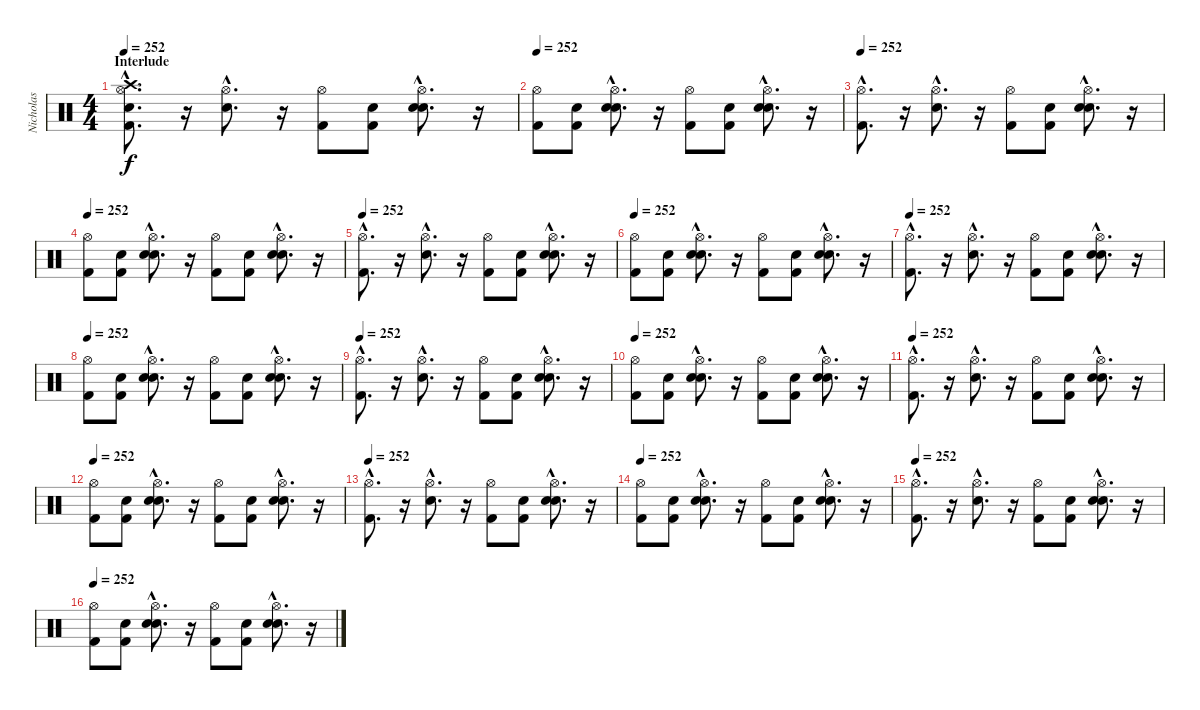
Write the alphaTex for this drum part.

\track ("Nicholas" "Nicholas") {instrument percussion}
\staff {score}
\articulation defaults
\ts (4 4)
\section ("" "Interlude")
\tempo 252
\clef neutral
\ks c
("Snare (hit)"{hac} "Kick (hit) 2"{hac} "Hi-Hat (open)"{hac} "Crash high (hit)"{hac}).8{d dy f} r.16 ("Snare (hit) 2"{hac} "Hi-Hat (open)"{hac}).8{d} r.16 ("Kick (hit) 2" "Hi-Hat (open)").8 ("Snare (hit)" "Kick (hit) 2").8 ("Snare (hit)"{hac} "Snare (hit) 2"{hac} "Hi-Hat (open)"{hac}).8{d} r.16 |
\tempo 252
("Kick (hit) 2" "Hi-Hat (open)").8 ("Snare (hit)" "Kick (hit) 2").8 ("Snare (hit)"{hac} "Snare (hit) 2"{hac} "Hi-Hat (open)"{hac}).8{d} r.16 ("Kick (hit) 2" "Hi-Hat (open)").8 ("Snare (hit)" "Kick (hit) 2").8 ("Snare (hit)"{hac} "Snare (hit) 2"{hac} "Hi-Hat (open)"{hac}).8{d} r.16 |
\tempo 252
("Kick (hit) 2"{hac} "Hi-Hat (open)"{hac}).8{d} r.16 ("Snare (hit) 2"{hac} "Hi-Hat (open)"{hac}).8{d} r.16 ("Kick (hit) 2" "Hi-Hat (open)").8 ("Snare (hit)" "Kick (hit) 2").8 ("Snare (hit)"{hac} "Snare (hit) 2"{hac} "Hi-Hat (open)"{hac}).8{d} r.16 |
\tempo 252
("Kick (hit) 2" "Hi-Hat (open)").8 ("Snare (hit)" "Kick (hit) 2").8 ("Snare (hit)"{hac} "Snare (hit) 2"{hac} "Hi-Hat (open)"{hac}).8{d} r.16 ("Kick (hit) 2" "Hi-Hat (open)").8 ("Snare (hit)" "Kick (hit) 2").8 ("Snare (hit)"{hac} "Snare (hit) 2"{hac} "Hi-Hat (open)"{hac}).8{d} r.16 |
\tempo 252
("Kick (hit) 2"{hac} "Hi-Hat (open)"{hac}).8{d} r.16 ("Snare (hit) 2"{hac} "Hi-Hat (open)"{hac}).8{d} r.16 ("Kick (hit) 2" "Hi-Hat (open)").8 ("Snare (hit)" "Kick (hit) 2").8 ("Snare (hit)"{hac} "Snare (hit) 2"{hac} "Hi-Hat (open)"{hac}).8{d} r.16 |
\tempo 252
("Kick (hit) 2" "Hi-Hat (open)").8 ("Snare (hit)" "Kick (hit) 2").8 ("Snare (hit)"{hac} "Snare (hit) 2"{hac} "Hi-Hat (open)"{hac}).8{d} r.16 ("Kick (hit) 2" "Hi-Hat (open)").8 ("Snare (hit)" "Kick (hit) 2").8 ("Snare (hit)"{hac} "Snare (hit) 2"{hac} "Hi-Hat (open)"{hac}).8{d} r.16 |
\tempo 252
("Kick (hit) 2"{hac} "Hi-Hat (open)"{hac}).8{d} r.16 ("Snare (hit) 2"{hac} "Hi-Hat (open)"{hac}).8{d} r.16 ("Kick (hit) 2" "Hi-Hat (open)").8 ("Snare (hit)" "Kick (hit) 2").8 ("Snare (hit)"{hac} "Snare (hit) 2"{hac} "Hi-Hat (open)"{hac}).8{d} r.16 |
\tempo 252
("Kick (hit) 2" "Hi-Hat (open)").8 ("Snare (hit)" "Kick (hit) 2").8 ("Snare (hit)"{hac} "Snare (hit) 2"{hac} "Hi-Hat (open)"{hac}).8{d} r.16 ("Kick (hit) 2" "Hi-Hat (open)").8 ("Snare (hit)" "Kick (hit) 2").8 ("Snare (hit)"{hac} "Snare (hit) 2"{hac} "Hi-Hat (open)"{hac}).8{d} r.16 |
\tempo 252
("Kick (hit) 2"{hac} "Hi-Hat (open)"{hac}).8{d} r.16 ("Snare (hit) 2"{hac} "Hi-Hat (open)"{hac}).8{d} r.16 ("Kick (hit) 2" "Hi-Hat (open)").8 ("Snare (hit)" "Kick (hit) 2").8 ("Snare (hit)"{hac} "Snare (hit) 2"{hac} "Hi-Hat (open)"{hac}).8{d} r.16 |
\tempo 252
("Kick (hit) 2" "Hi-Hat (open)").8 ("Snare (hit)" "Kick (hit) 2").8 ("Snare (hit)"{hac} "Snare (hit) 2"{hac} "Hi-Hat (open)"{hac}).8{d} r.16 ("Kick (hit) 2" "Hi-Hat (open)").8 ("Snare (hit)" "Kick (hit) 2").8 ("Snare (hit)"{hac} "Snare (hit) 2"{hac} "Hi-Hat (open)"{hac}).8{d} r.16 |
\tempo 252
("Kick (hit) 2"{hac} "Hi-Hat (open)"{hac}).8{d} r.16 ("Snare (hit) 2"{hac} "Hi-Hat (open)"{hac}).8{d} r.16 ("Kick (hit) 2" "Hi-Hat (open)").8 ("Snare (hit)" "Kick (hit) 2").8 ("Snare (hit)"{hac} "Snare (hit) 2"{hac} "Hi-Hat (open)"{hac}).8{d} r.16 |
\tempo 252
("Kick (hit) 2" "Hi-Hat (open)").8 ("Snare (hit)" "Kick (hit) 2").8 ("Snare (hit)"{hac} "Snare (hit) 2"{hac} "Hi-Hat (open)"{hac}).8{d} r.16 ("Kick (hit) 2" "Hi-Hat (open)").8 ("Snare (hit)" "Kick (hit) 2").8 ("Snare (hit)"{hac} "Snare (hit) 2"{hac} "Hi-Hat (open)"{hac}).8{d} r.16 |
\tempo 252
("Kick (hit) 2"{hac} "Hi-Hat (open)"{hac}).8{d} r.16 ("Snare (hit) 2"{hac} "Hi-Hat (open)"{hac}).8{d} r.16 ("Kick (hit) 2" "Hi-Hat (open)").8 ("Snare (hit)" "Kick (hit) 2").8 ("Snare (hit)"{hac} "Snare (hit) 2"{hac} "Hi-Hat (open)"{hac}).8{d} r.16 |
\tempo 252
("Kick (hit) 2" "Hi-Hat (open)").8 ("Snare (hit)" "Kick (hit) 2").8 ("Snare (hit)"{hac} "Snare (hit) 2"{hac} "Hi-Hat (open)"{hac}).8{d} r.16 ("Kick (hit) 2" "Hi-Hat (open)").8 ("Snare (hit)" "Kick (hit) 2").8 ("Snare (hit)"{hac} "Snare (hit) 2"{hac} "Hi-Hat (open)"{hac}).8{d} r.16 |
\tempo 252
("Kick (hit) 2"{hac} "Hi-Hat (open)"{hac}).8{d} r.16 ("Snare (hit) 2"{hac} "Hi-Hat (open)"{hac}).8{d} r.16 ("Kick (hit) 2" "Hi-Hat (open)").8 ("Snare (hit)" "Kick (hit) 2").8 ("Snare (hit)"{hac} "Snare (hit) 2"{hac} "Hi-Hat (open)"{hac}).8{d} r.16 |
\tempo 252
("Kick (hit) 2" "Hi-Hat (open)").8 ("Snare (hit)" "Kick (hit) 2").8 ("Snare (hit)"{hac} "Snare (hit) 2"{hac} "Hi-Hat (open)"{hac}).8{d} r.16 ("Kick (hit) 2" "Hi-Hat (open)").8 ("Snare (hit)" "Kick (hit) 2").8 ("Snare (hit)"{hac} "Snare (hit) 2"{hac} "Hi-Hat (open)"{hac}).8{d} r.16
